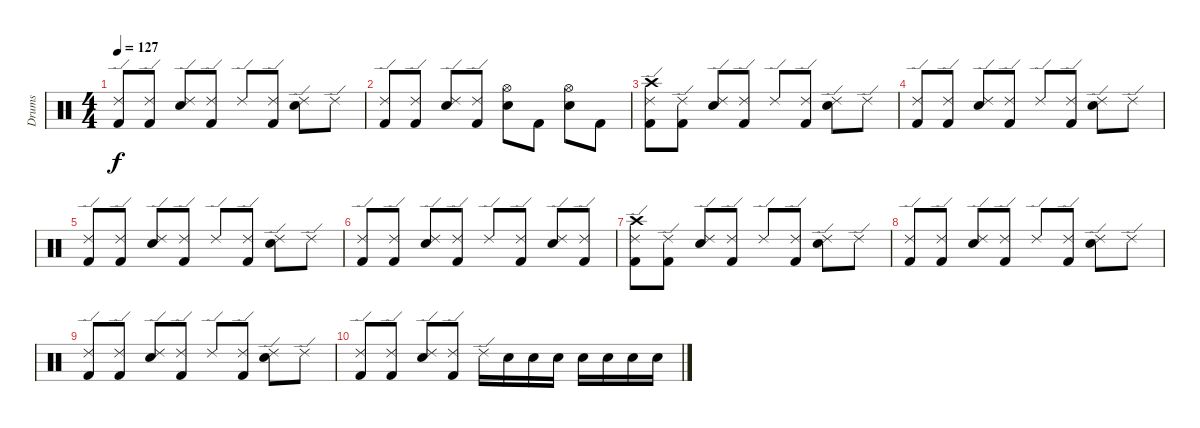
\track ("Drums" "Drums") {instrument percussion}
\staff {score}
\articulation defaults
\ts (4 4)
\tempo 127
\clef neutral
\ks c
("Ride (edge) 2" "Kick (hit) 2").8{dy f} ("Ride (edge) 2" "Kick (hit) 2").8 ("Ride (edge) 2" "Electric Snare (hit)").8 ("Ride (edge) 2" "Kick (hit) 2").8 "Ride (edge) 2".8 ("Ride (edge) 2" "Kick (hit) 2").8 ("Ride (edge) 2" "Electric Snare (hit)").8 "Ride (edge) 2".8 |
("Ride (edge) 2" "Kick (hit) 2").8 ("Ride (edge) 2" "Kick (hit) 2").8 ("Ride (edge) 2" "Electric Snare (hit)").8 ("Ride (edge) 2" "Kick (hit) 2").8 ("Hi-Hat (open)" "Electric Snare (hit)").8 "Kick (hit) 2".8 ("Hi-Hat (open)" "Electric Snare (hit)").8 "Kick (hit) 2".8 |
("Crash high (hit)" "Ride (edge) 2" "Kick (hit) 2").8 ("Ride (edge) 2" "Kick (hit) 2").8 ("Ride (edge) 2" "Electric Snare (hit)").8 ("Ride (edge) 2" "Kick (hit) 2").8 "Ride (edge) 2".8 ("Ride (edge) 2" "Kick (hit) 2").8 ("Ride (edge) 2" "Electric Snare (hit)").8 "Ride (edge) 2".8 |
("Ride (edge) 2" "Kick (hit) 2").8 ("Ride (edge) 2" "Kick (hit) 2").8 ("Ride (edge) 2" "Electric Snare (hit)").8 ("Ride (edge) 2" "Kick (hit) 2").8 "Ride (edge) 2".8 ("Ride (edge) 2" "Kick (hit) 2").8 ("Ride (edge) 2" "Electric Snare (hit)").8 "Ride (edge) 2".8 |
("Ride (edge) 2" "Kick (hit) 2").8 ("Ride (edge) 2" "Kick (hit) 2").8 ("Ride (edge) 2" "Electric Snare (hit)").8 ("Ride (edge) 2" "Kick (hit) 2").8 "Ride (edge) 2".8 ("Ride (edge) 2" "Kick (hit) 2").8 ("Ride (edge) 2" "Electric Snare (hit)").8 "Ride (edge) 2".8 |
("Ride (edge) 2" "Kick (hit) 2").8 ("Ride (edge) 2" "Kick (hit) 2").8 ("Ride (edge) 2" "Electric Snare (hit)").8 ("Ride (edge) 2" "Kick (hit) 2").8 "Ride (edge) 2".8 ("Ride (edge) 2" "Kick (hit) 2").8 ("Ride (edge) 2" "Electric Snare (hit)").8 ("Ride (edge) 2" "Kick (hit) 2").8 |
("Crash high (hit)" "Ride (edge) 2" "Kick (hit) 2").8 ("Ride (edge) 2" "Kick (hit) 2").8 ("Ride (edge) 2" "Electric Snare (hit)").8 ("Ride (edge) 2" "Kick (hit) 2").8 "Ride (edge) 2".8 ("Ride (edge) 2" "Kick (hit) 2").8 ("Ride (edge) 2" "Electric Snare (hit)").8 "Ride (edge) 2".8 |
("Ride (edge) 2" "Kick (hit) 2").8 ("Ride (edge) 2" "Kick (hit) 2").8 ("Ride (edge) 2" "Electric Snare (hit)").8 ("Ride (edge) 2" "Kick (hit) 2").8 "Ride (edge) 2".8 ("Ride (edge) 2" "Kick (hit) 2").8 ("Ride (edge) 2" "Electric Snare (hit)").8 "Ride (edge) 2".8 |
("Ride (edge) 2" "Kick (hit) 2").8 ("Ride (edge) 2" "Kick (hit) 2").8 ("Ride (edge) 2" "Electric Snare (hit)").8 ("Ride (edge) 2" "Kick (hit) 2").8 "Ride (edge) 2".8 ("Ride (edge) 2" "Kick (hit) 2").8 ("Ride (edge) 2" "Electric Snare (hit)").8 "Ride (edge) 2".8 |
("Ride (edge) 2" "Kick (hit) 2").8 ("Ride (edge) 2" "Kick (hit) 2").8 ("Ride (edge) 2" "Electric Snare (hit)").8 ("Ride (edge) 2" "Kick (hit) 2").8 "Ride (edge) 2".16 "Electric Snare (hit)".16 "Electric Snare (hit)".16 "Electric Snare (hit)".16 "Electric Snare (hit)".16 "Electric Snare (hit)".16 "Electric Snare (hit)".16 "Electric Snare (hit)".16
